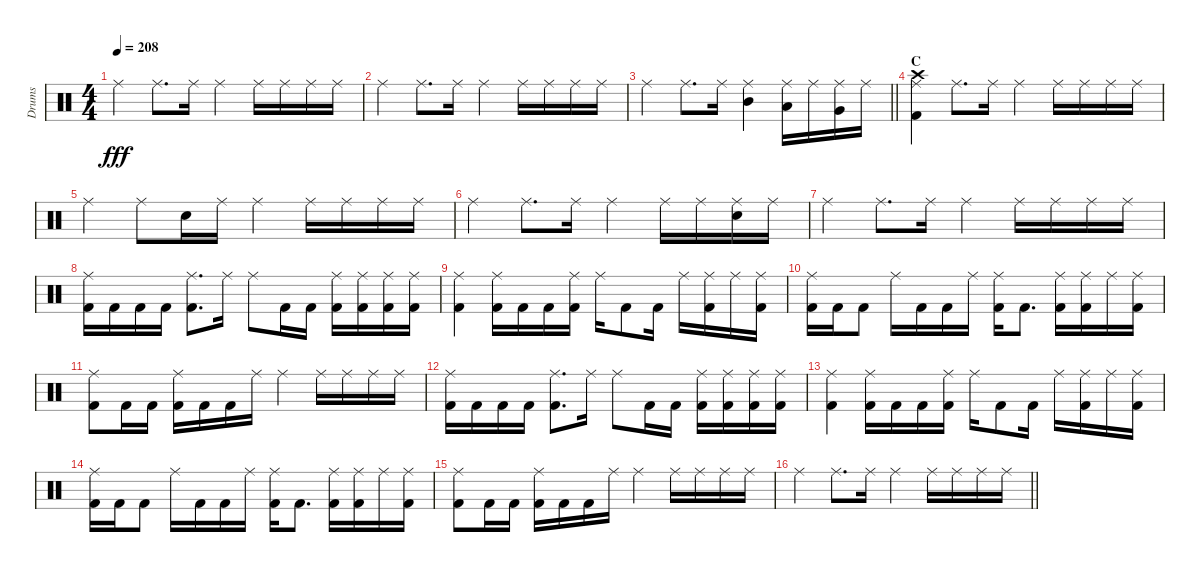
\track ("Drums" "Drums") {instrument percussion}
\staff {score}
\articulation defaults
\ts (4 4)
\tempo 208
\clef neutral
\ks c "Ride (middle)".4{dy fff} "Ride (middle)".8{d} "Ride (middle)".16 "Ride (middle)".4 "Ride (middle)".16 "Ride (middle)".16 "Ride (middle)".16 "Ride (middle)".16
|
"Ride (middle)".4 "Ride (middle)".8{d} "Ride (middle)".16 "Ride (middle)".4 "Ride (middle)".16 "Ride (middle)".16 "Ride (middle)".16 "Ride (middle)".16 |
\barLineRight lightlight "Ride (middle)".4 "Ride (middle)".8{d} "Ride (middle)".16
("Ride (middle)" "Mid Tom (hit)").4 ("Ride (middle)" "Low Tom (hit)").16 "Ride (middle)".16 ("Ride (middle)" "Very Low Tom (hit)").16 "Ride (middle)".16 |
\section ("" "C")
("Ride (middle)" "Crash high (hit)" "Kick (hit) 2").4 "Ride (middle)".8{d} "Ride (middle)".16 "Ride (middle)".4 "Ride (middle)".16 "Ride (middle)".16 "Ride (middle)".16 "Ride (middle)".16 |
"Ride (middle)".4 "Ride (middle)".8 "Snare (hit) 2".16 "Ride (middle)".16 "Ride (middle)".4 "Ride (middle)".16 "Ride (middle)".16 "Ride (middle)".16 "Ride (middle)".16 |
"Ride (middle)".4 "Ride (middle)".8{d} "Ride (middle)".16 "Ride (middle)".4 "Ride (middle)".16 "Ride (middle)".16 ("Ride (middle)" "Snare (hit) 2").16 "Ride (middle)".16 |
"Ride (middle)".4 "Ride (middle)".8{d} "Ride (middle)".16 "Ride (middle)".4 "Ride (middle)".16 "Ride (middle)".16 "Ride (middle)".16 "Ride (middle)".16 |
("Ride (middle)" "Kick (hit) 2").16 "Kick (hit) 2".16 "Kick (hit) 2".16 "Kick (hit) 2".16 ("Ride (middle)" "Kick (hit) 2").8{d} "Ride (middle)".16 "Ride (middle)".8 "Kick (hit) 2".16 "Kick (hit) 2".16 ("Ride (middle)" "Kick (hit) 2").16 ("Ride (middle)" "Kick (hit) 2").16 ("Ride (middle)" "Kick (hit) 2").16 ("Ride (middle)" "Kick (hit) 2").16 |
("Ride (middle)" "Kick (hit) 2").4 ("Ride (middle)" "Kick (hit) 2").16 "Kick (hit) 2".16 "Kick (hit) 2".16 ("Ride (middle)" "Kick (hit) 2").16 "Ride (middle)".16 "Kick (hit) 2".8 "Kick (hit) 2".16 "Ride (middle)".16 ("Ride (middle)" "Kick (hit) 2").16 "Ride (middle)".16 ("Ride (middle)" "Kick (hit) 2").16 |
("Ride (middle)" "Kick (hit) 2").16 "Kick (hit) 2".16 "Kick (hit) 2".8 "Ride (middle)".16 "Kick (hit) 2".16 "Kick (hit) 2".16 "Ride (middle)".16 ("Ride (middle)" "Kick (hit) 2").16 "Kick (hit) 2".8{d} ("Ride (middle)" "Kick (hit) 2").16 ("Ride (middle)" "Kick (hit) 2").16 "Ride (middle)".16 ("Ride (middle)" "Kick (hit) 2").16 |
("Ride (middle)" "Kick (hit) 2").8 "Kick (hit) 2".16 "Kick (hit) 2".16 ("Ride (middle)" "Kick (hit) 2").16 "Kick (hit) 2".16 "Kick (hit) 2".16 "Ride (middle)".16 "Ride (middle)".4 "Ride (middle)".16 "Ride (middle)".16 "Ride (middle)".16 "Ride (middle)".16 |
("Ride (middle)" "Kick (hit) 2").16 "Kick (hit) 2".16 "Kick (hit) 2".16 "Kick (hit) 2".16 ("Ride (middle)" "Kick (hit) 2").8{d} "Ride (middle)".16 "Ride (middle)".8 "Kick (hit) 2".16 "Kick (hit) 2".16 ("Ride (middle)" "Kick (hit) 2").16 ("Ride (middle)" "Kick (hit) 2").16 ("Ride (middle)" "Kick (hit) 2").16 ("Ride (middle)" "Kick (hit) 2").16 |
("Ride (middle)" "Kick (hit) 2").4 ("Ride (middle)" "Kick (hit) 2").16 "Kick (hit) 2".16 "Kick (hit) 2".16 ("Ride (middle)" "Kick (hit) 2").16 "Ride (middle)".16 "Kick (hit) 2".8 "Kick (hit) 2".16 "Ride (middle)".16 ("Ride (middle)" "Kick (hit) 2").16 "Ride (middle)".16 ("Ride (middle)" "Kick (hit) 2").16 |
("Ride (middle)" "Kick (hit) 2").16 "Kick (hit) 2".16 "Kick (hit) 2".8 "Ride (middle)".16 "Kick (hit) 2".16 "Kick (hit) 2".16 "Ride (middle)".16 ("Ride (middle)" "Kick (hit) 2").16 "Kick (hit) 2".8{d} ("Ride (middle)" "Kick (hit) 2").16 ("Ride (middle)" "Kick (hit) 2").16 "Ride (middle)".16 ("Ride (middle)" "Kick (hit) 2").16 |
("Ride (middle)" "Kick (hit) 2").8 "Kick (hit) 2".16 "Kick (hit) 2".16 ("Ride (middle)" "Kick (hit) 2").16 "Kick (hit) 2".16 "Kick (hit) 2".16 "Ride (middle)".16 "Ride (middle)".4 "Ride (middle)".16 "Ride (middle)".16 "Ride (middle)".16 "Ride (middle)".16 |
\barLineRight lightlight "Ride (middle)".4 "Ride (middle)".8{d} "Ride (middle)".16 "Ride (middle)".4 "Ride (middle)".16 "Ride (middle)".16 "Ride (middle)".16 "Ride (middle)".16
